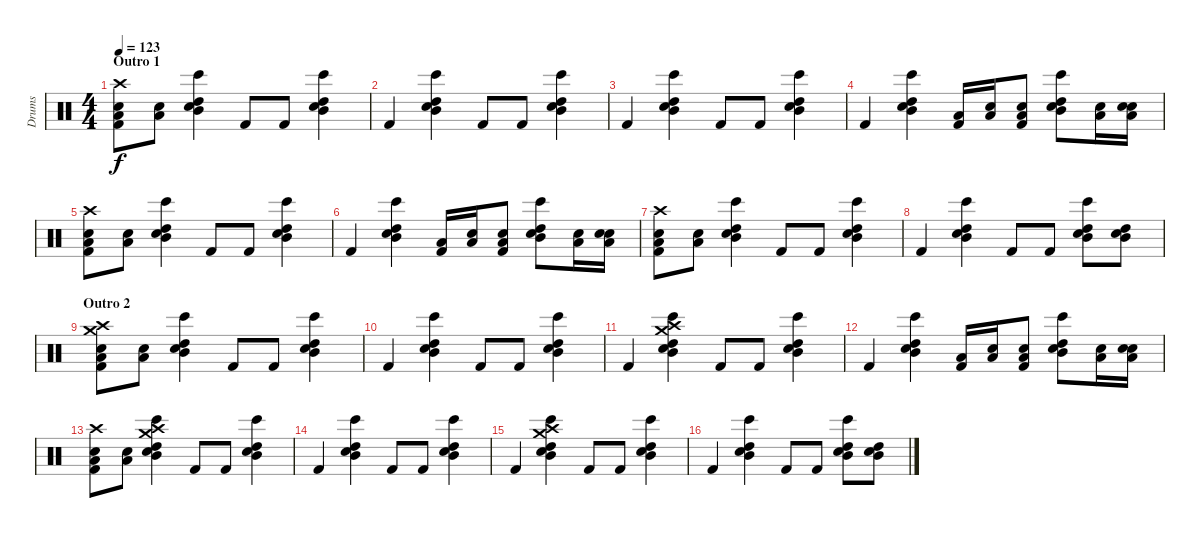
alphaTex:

\track ("Drums" "Drums") {instrument percussion}
\staff {score}
\articulation defaults
\ts (4 4)
\section ("" "Outro 1")
\tempo 123
\clef neutral
\ks c
("Crash high (hit)" "Snare (hit) 2" "Low Floor Tom (hit)" "Kick (hit) 2").8{dy f} ("Snare (hit) 2" "Low Floor Tom (hit)").8 ("Bongo High (hit)" "High Tom (hit)" "Mid Tom (hit)" "Snare (hit) 2").4 "Kick (hit) 2".8 "Kick (hit) 2".8 ("Bongo High (hit)" "High Tom (hit)" "Mid Tom (hit)" "Snare (hit) 2").4 |
"Kick (hit) 2".4 ("Bongo High (hit)" "High Tom (hit)" "Mid Tom (hit)" "Snare (hit) 2").4 "Kick (hit) 2".8 "Kick (hit) 2".8 ("Bongo High (hit)" "High Tom (hit)" "Mid Tom (hit)" "Snare (hit) 2").4 |
"Kick (hit) 2".4 ("Bongo High (hit)" "High Tom (hit)" "Mid Tom (hit)" "Snare (hit) 2").4 "Kick (hit) 2".8 "Kick (hit) 2".8 ("Bongo High (hit)" "High Tom (hit)" "Mid Tom (hit)" "Snare (hit) 2").4 |
"Kick (hit) 2".4 ("Bongo High (hit)" "High Tom (hit)" "Mid Tom (hit)" "Snare (hit) 2").4 ("Low Floor Tom (hit)" "Kick (hit) 2").16 ("Snare (hit) 2" "Low Floor Tom (hit)").16 ("Snare (hit) 2" "Low Floor Tom (hit)" "Kick (hit) 2").8 ("Bongo High (hit)" "High Tom (hit)" "Mid Tom (hit)" "Snare (hit) 2").8 ("Low Floor Tom (hit)" "Snare (hit) 2").16 ("Snare (hit) 2" "Low Floor Tom (hit)" "Snare (hit) 2").16 |
("Crash high (hit)" "Snare (hit) 2" "Low Floor Tom (hit)" "Kick (hit) 2").8 ("Snare (hit) 2" "Low Floor Tom (hit)").8 ("Bongo High (hit)" "High Tom (hit)" "Mid Tom (hit)" "Snare (hit) 2").4 "Kick (hit) 2".8 "Kick (hit) 2".8 ("Bongo High (hit)" "High Tom (hit)" "Mid Tom (hit)" "Snare (hit) 2").4 |
"Kick (hit) 2".4 ("Bongo High (hit)" "High Tom (hit)" "Mid Tom (hit)" "Snare (hit) 2").4 ("Low Floor Tom (hit)" "Kick (hit) 2").16 ("Snare (hit) 2" "Low Floor Tom (hit)").16 ("Snare (hit) 2" "Low Floor Tom (hit)" "Kick (hit) 2").8 ("Bongo High (hit)" "High Tom (hit)" "Mid Tom (hit)" "Snare (hit) 2").8 ("Low Floor Tom (hit)" "Snare (hit) 2").16 ("Snare (hit) 2" "Low Floor Tom (hit)" "Snare (hit) 2").16 |
("Crash high (hit)" "Snare (hit) 2" "Low Floor Tom (hit)" "Kick (hit) 2").8 ("Snare (hit) 2" "Low Floor Tom (hit)").8 ("Bongo High (hit)" "High Tom (hit)" "Mid Tom (hit)" "Snare (hit) 2").4 "Kick (hit) 2".8 "Kick (hit) 2".8 ("Bongo High (hit)" "High Tom (hit)" "Mid Tom (hit)" "Snare (hit) 2").4 |
"Kick (hit) 2".4 ("Bongo High (hit)" "High Tom (hit)" "Mid Tom (hit)" "Snare (hit) 2").4 "Kick (hit) 2".8 "Kick (hit) 2".8 ("Bongo High (hit)" "High Tom (hit)" "Mid Tom (hit)" "Snare (hit) 2").8 ("High Tom (hit)" "Mid Tom (hit)" "Snare (hit) 2").8 |
\section ("" "Outro 2")
("Crash high (hit)" "Snare (hit) 2" "Low Floor Tom (hit)" "Kick (hit) 2" "Crash medium (hit)").8 ("Snare (hit) 2" "Low Floor Tom (hit)").8 ("Bongo High (hit)" "High Tom (hit)" "Mid Tom (hit)" "Snare (hit) 2").4 "Kick (hit) 2".8 "Kick (hit) 2".8 ("Bongo High (hit)" "High Tom (hit)" "Mid Tom (hit)" "Snare (hit) 2").4 |
"Kick (hit) 2".4 ("Bongo High (hit)" "High Tom (hit)" "Mid Tom (hit)" "Snare (hit) 2").4 "Kick (hit) 2".8 "Kick (hit) 2".8 ("Bongo High (hit)" "High Tom (hit)" "Mid Tom (hit)" "Snare (hit) 2").4 |
"Kick (hit) 2".4 ("Crash high (hit)" "Bongo High (hit)" "High Tom (hit)" "Mid Tom (hit)" "Snare (hit) 2" "Crash medium (hit)").4 "Kick (hit) 2".8 "Kick (hit) 2".8 ("Bongo High (hit)" "High Tom (hit)" "Mid Tom (hit)" "Snare (hit) 2").4 |
"Kick (hit) 2".4 ("Bongo High (hit)" "High Tom (hit)" "Mid Tom (hit)" "Snare (hit) 2").4 ("Low Floor Tom (hit)" "Kick (hit) 2").16 ("Snare (hit) 2" "Low Floor Tom (hit)").16 ("Snare (hit) 2" "Low Floor Tom (hit)" "Kick (hit) 2").8 ("Bongo High (hit)" "High Tom (hit)" "Mid Tom (hit)" "Snare (hit) 2").8 ("Low Floor Tom (hit)" "Snare (hit) 2").16 ("Snare (hit) 2" "Low Floor Tom (hit)" "Snare (hit) 2").16 |
("Crash high (hit)" "Snare (hit) 2" "Low Floor Tom (hit)" "Kick (hit) 2").8 ("Snare (hit) 2" "Low Floor Tom (hit)").8 ("Crash high (hit)" "Bongo High (hit)" "High Tom (hit)" "Mid Tom (hit)" "Snare (hit) 2" "Crash medium (hit)").4 "Kick (hit) 2".8 "Kick (hit) 2".8 ("Bongo High (hit)" "High Tom (hit)" "Mid Tom (hit)" "Snare (hit) 2").4 |
"Kick (hit) 2".4 ("Bongo High (hit)" "High Tom (hit)" "Mid Tom (hit)" "Snare (hit) 2").4 "Kick (hit) 2".8 "Kick (hit) 2".8 ("Bongo High (hit)" "High Tom (hit)" "Mid Tom (hit)" "Snare (hit) 2").4 |
"Kick (hit) 2".4 ("Crash high (hit)" "Bongo High (hit)" "High Tom (hit)" "Mid Tom (hit)" "Snare (hit) 2" "Crash medium (hit)").4 "Kick (hit) 2".8 "Kick (hit) 2".8 ("Bongo High (hit)" "High Tom (hit)" "Mid Tom (hit)" "Snare (hit) 2").4 |
"Kick (hit) 2".4 ("Bongo High (hit)" "High Tom (hit)" "Mid Tom (hit)" "Snare (hit) 2").4 "Kick (hit) 2".8 "Kick (hit) 2".8 ("Bongo High (hit)" "High Tom (hit)" "Mid Tom (hit)" "Snare (hit) 2").8 ("High Tom (hit)" "Mid Tom (hit)" "Snare (hit) 2").8
